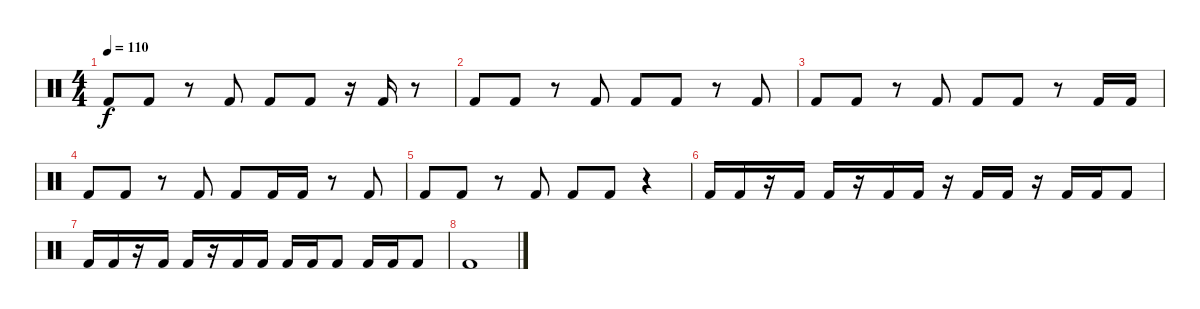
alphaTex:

\track "" {instrument percussion}
\staff {score}
\articulation defaults
\ts (4 4)
\tempo 110
\clef neutral
\ks c "Kick (hit) 2".8{dy f} "Kick (hit) 2".8
r.8 "Kick (hit) 2".8 "Kick (hit) 2".8 "Kick (hit) 2".8 r.16 "Kick (hit) 2".16 r.8 |
"Kick (hit) 2".8 "Kick (hit) 2".8 r.8 "Kick (hit) 2".8 "Kick (hit) 2".8 "Kick (hit) 2".8 r.8 "Kick (hit) 2".8 |
"Kick (hit) 2".8 "Kick (hit) 2".8 r.8 "Kick (hit) 2".8 "Kick (hit) 2".8 "Kick (hit) 2".8 r.8 "Kick (hit) 2".16 "Kick (hit) 2".16 |
"Kick (hit) 2".8 "Kick (hit) 2".8 r.8 "Kick (hit) 2".8 "Kick (hit) 2".8 "Kick (hit) 2".16 "Kick (hit) 2".16 r.8 "Kick (hit) 2".8 |
"Kick (hit) 2".8 "Kick (hit) 2".8 r.8 "Kick (hit) 2".8 "Kick (hit) 2".8 "Kick (hit) 2".8 r.4 |
"Kick (hit) 2".16 "Kick (hit) 2".16 r.16 "Kick (hit) 2".16 "Kick (hit) 2".16 r.16 "Kick (hit) 2".16 "Kick (hit) 2".16 r.16 "Kick (hit) 2".16 "Kick (hit) 2".16 r.16 "Kick (hit) 2".16 "Kick (hit) 2".16 "Kick (hit) 2".8 |
"Kick (hit) 2".16 "Kick (hit) 2".16 r.16 "Kick (hit) 2".16 "Kick (hit) 2".16 r.16 "Kick (hit) 2".16 "Kick (hit) 2".16 "Kick (hit) 2".16 "Kick (hit) 2".16 "Kick (hit) 2".8 "Kick (hit) 2".16 "Kick (hit) 2".16 "Kick (hit) 2".8 |
"Kick (hit) 2".1
